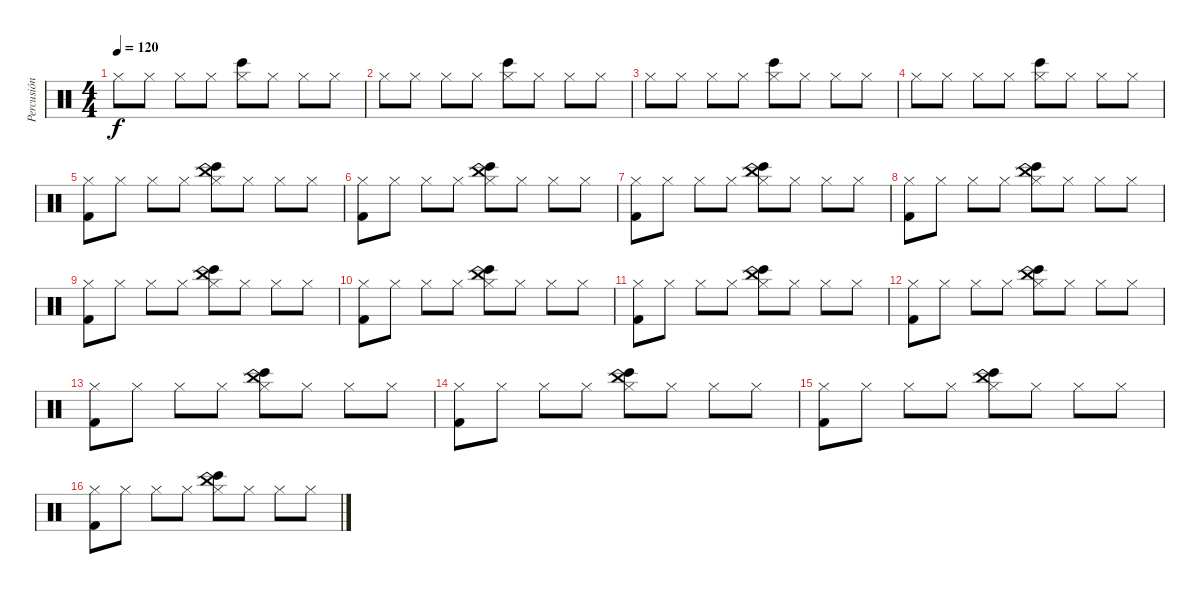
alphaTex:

\track ("Percusión" "Percusión") {instrument percussion}
\staff {score}
\articulation defaults
\ts (4 4)
\tempo 120
\clef neutral
\ks c "Hi-Hat (closed)".8{dy f} "Hi-Hat (closed)".8 "Hi-Hat (closed)".8 "Hi-Hat (closed)".8
("Hi-Hat (closed)" "Bongo High (hit)").8 "Hi-Hat (closed)".8 "Hi-Hat (closed)".8 "Hi-Hat (closed)".8 |
"Hi-Hat (closed)".8 "Hi-Hat (closed)".8 "Hi-Hat (closed)".8 "Hi-Hat (closed)".8 ("Hi-Hat (closed)" "Bongo High (hit)").8 "Hi-Hat (closed)".8 "Hi-Hat (closed)".8 "Hi-Hat (closed)".8 |
"Hi-Hat (closed)".8 "Hi-Hat (closed)".8 "Hi-Hat (closed)".8 "Hi-Hat (closed)".8 ("Hi-Hat (closed)" "Bongo High (hit)").8 "Hi-Hat (closed)".8 "Hi-Hat (closed)".8 "Hi-Hat (closed)".8 |
"Hi-Hat (closed)".8 "Hi-Hat (closed)".8 "Hi-Hat (closed)".8 "Hi-Hat (closed)".8 ("Hi-Hat (closed)" "Bongo High (hit)").8 "Hi-Hat (closed)".8 "Hi-Hat (closed)".8 "Hi-Hat (closed)".8 |
("Hi-Hat (closed)" "Kick (hit) 2").8 "Hi-Hat (closed)".8 "Hi-Hat (closed)".8 "Hi-Hat (closed)".8 ("Hi-Hat (closed)" "Bongo High (hit)" "China (hit)").8 "Hi-Hat (closed)".8 "Hi-Hat (closed)".8 "Hi-Hat (closed)".8 |
("Hi-Hat (closed)" "Kick (hit) 2").8 "Hi-Hat (closed)".8 "Hi-Hat (closed)".8 "Hi-Hat (closed)".8 ("Hi-Hat (closed)" "Bongo High (hit)" "China (hit)").8 "Hi-Hat (closed)".8 "Hi-Hat (closed)".8 "Hi-Hat (closed)".8 |
("Hi-Hat (closed)" "Kick (hit) 2").8 "Hi-Hat (closed)".8 "Hi-Hat (closed)".8 "Hi-Hat (closed)".8 ("Hi-Hat (closed)" "Bongo High (hit)" "China (hit)").8 "Hi-Hat (closed)".8 "Hi-Hat (closed)".8 "Hi-Hat (closed)".8 |
("Hi-Hat (closed)" "Kick (hit) 2").8 "Hi-Hat (closed)".8 "Hi-Hat (closed)".8 "Hi-Hat (closed)".8 ("Hi-Hat (closed)" "Bongo High (hit)" "China (hit)").8 "Hi-Hat (closed)".8 "Hi-Hat (closed)".8 "Hi-Hat (closed)".8 |
("Hi-Hat (closed)" "Kick (hit) 2").8 "Hi-Hat (closed)".8 "Hi-Hat (closed)".8 "Hi-Hat (closed)".8 ("Hi-Hat (closed)" "Bongo High (hit)" "China (hit)").8 "Hi-Hat (closed)".8 "Hi-Hat (closed)".8 "Hi-Hat (closed)".8 |
("Hi-Hat (closed)" "Kick (hit) 2").8 "Hi-Hat (closed)".8 "Hi-Hat (closed)".8 "Hi-Hat (closed)".8 ("Hi-Hat (closed)" "Bongo High (hit)" "China (hit)").8 "Hi-Hat (closed)".8 "Hi-Hat (closed)".8 "Hi-Hat (closed)".8 |
("Hi-Hat (closed)" "Kick (hit) 2").8 "Hi-Hat (closed)".8 "Hi-Hat (closed)".8 "Hi-Hat (closed)".8 ("Hi-Hat (closed)" "Bongo High (hit)" "China (hit)").8 "Hi-Hat (closed)".8 "Hi-Hat (closed)".8 "Hi-Hat (closed)".8 |
("Hi-Hat (closed)" "Kick (hit) 2").8 "Hi-Hat (closed)".8 "Hi-Hat (closed)".8 "Hi-Hat (closed)".8 ("Hi-Hat (closed)" "Bongo High (hit)" "China (hit)").8 "Hi-Hat (closed)".8 "Hi-Hat (closed)".8 "Hi-Hat (closed)".8 |
("Hi-Hat (closed)" "Kick (hit) 2").8 "Hi-Hat (closed)".8 "Hi-Hat (closed)".8 "Hi-Hat (closed)".8 ("Hi-Hat (closed)" "Bongo High (hit)" "China (hit)").8 "Hi-Hat (closed)".8 "Hi-Hat (closed)".8 "Hi-Hat (closed)".8 |
("Hi-Hat (closed)" "Kick (hit) 2").8 "Hi-Hat (closed)".8 "Hi-Hat (closed)".8 "Hi-Hat (closed)".8 ("Hi-Hat (closed)" "Bongo High (hit)" "China (hit)").8 "Hi-Hat (closed)".8 "Hi-Hat (closed)".8 "Hi-Hat (closed)".8 |
("Hi-Hat (closed)" "Kick (hit) 2").8 "Hi-Hat (closed)".8 "Hi-Hat (closed)".8 "Hi-Hat (closed)".8 ("Hi-Hat (closed)" "Bongo High (hit)" "China (hit)").8 "Hi-Hat (closed)".8 "Hi-Hat (closed)".8 "Hi-Hat (closed)".8 |
("Hi-Hat (closed)" "Kick (hit) 2").8 "Hi-Hat (closed)".8 "Hi-Hat (closed)".8 "Hi-Hat (closed)".8 ("Hi-Hat (closed)" "Bongo High (hit)" "China (hit)").8 "Hi-Hat (closed)".8 "Hi-Hat (closed)".8 "Hi-Hat (closed)".8
